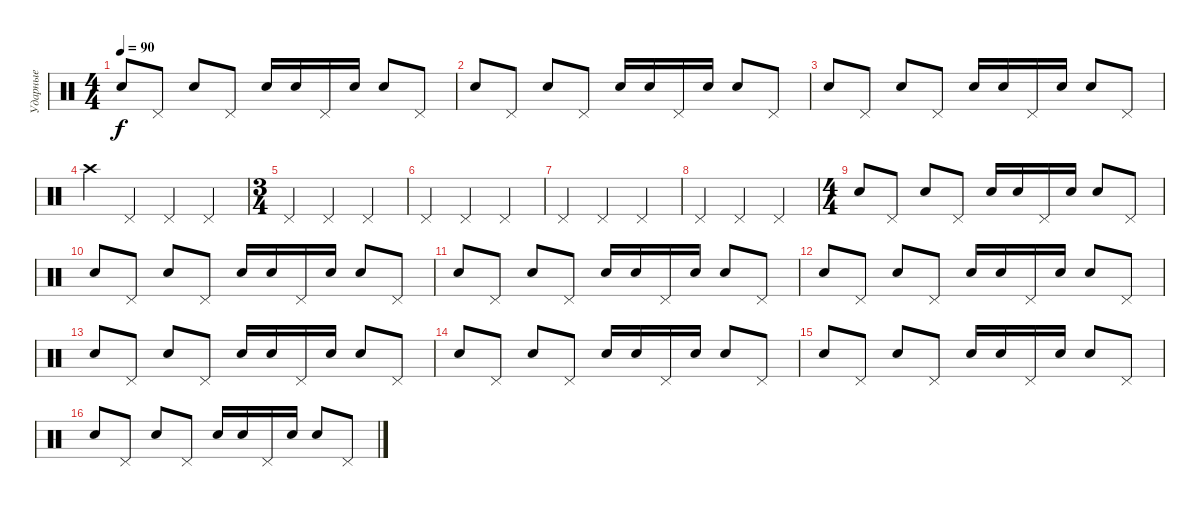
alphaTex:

\track ("Ударные" "Ударные") {instrument percussion}
\staff {score}
\articulation defaults
\ts (4 4)
\tempo 90
\clef neutral
\ks c "Snare (hit) 2".8{dy f} "Pedal Hi-Hat (hit)".8 "Snare (hit) 2".8 "Pedal Hi-Hat (hit)".8 "Snare (hit) 2".16 "Snare (hit) 2".16 "Pedal Hi-Hat (hit)".16 "Snare (hit) 2".16 "Snare (hit) 2".8 "Pedal Hi-Hat (hit)".8
|
"Snare (hit) 2".8 "Pedal Hi-Hat (hit)".8 "Snare (hit) 2".8 "Pedal Hi-Hat (hit)".8 "Snare (hit) 2".16 "Snare (hit) 2".16 "Pedal Hi-Hat (hit)".16 "Snare (hit) 2".16 "Snare (hit) 2".8 "Pedal Hi-Hat (hit)".8 |
"Snare (hit) 2".8 "Pedal Hi-Hat (hit)".8 "Snare (hit) 2".8 "Pedal Hi-Hat (hit)".8 "Snare (hit) 2".16 "Snare (hit) 2".16 "Pedal Hi-Hat (hit)".16 "Snare (hit) 2".16 "Snare (hit) 2".8 "Pedal Hi-Hat (hit)".8 |
"Crash high (hit)".4 "Pedal Hi-Hat (hit)".4 "Pedal Hi-Hat (hit)".4 "Pedal Hi-Hat (hit)".4 |
\ts (3 4)
"Pedal Hi-Hat (hit)".4 "Pedal Hi-Hat (hit)".4 "Pedal Hi-Hat (hit)".4 |
"Pedal Hi-Hat (hit)".4 "Pedal Hi-Hat (hit)".4 "Pedal Hi-Hat (hit)".4 |
"Pedal Hi-Hat (hit)".4 "Pedal Hi-Hat (hit)".4 "Pedal Hi-Hat (hit)".4 |
"Pedal Hi-Hat (hit)".4 "Pedal Hi-Hat (hit)".4 "Pedal Hi-Hat (hit)".4 |
\ts (4 4)
"Snare (hit) 2".8 "Pedal Hi-Hat (hit)".8 "Snare (hit) 2".8 "Pedal Hi-Hat (hit)".8 "Snare (hit) 2".16 "Snare (hit) 2".16 "Pedal Hi-Hat (hit)".16 "Snare (hit) 2".16 "Snare (hit) 2".8 "Pedal Hi-Hat (hit)".8 |
"Snare (hit) 2".8 "Pedal Hi-Hat (hit)".8 "Snare (hit) 2".8 "Pedal Hi-Hat (hit)".8 "Snare (hit) 2".16 "Snare (hit) 2".16 "Pedal Hi-Hat (hit)".16 "Snare (hit) 2".16 "Snare (hit) 2".8 "Pedal Hi-Hat (hit)".8 |
"Snare (hit) 2".8 "Pedal Hi-Hat (hit)".8 "Snare (hit) 2".8 "Pedal Hi-Hat (hit)".8 "Snare (hit) 2".16 "Snare (hit) 2".16 "Pedal Hi-Hat (hit)".16 "Snare (hit) 2".16 "Snare (hit) 2".8 "Pedal Hi-Hat (hit)".8 |
"Snare (hit) 2".8 "Pedal Hi-Hat (hit)".8 "Snare (hit) 2".8 "Pedal Hi-Hat (hit)".8 "Snare (hit) 2".16 "Snare (hit) 2".16 "Pedal Hi-Hat (hit)".16 "Snare (hit) 2".16 "Snare (hit) 2".8 "Pedal Hi-Hat (hit)".8 |
"Snare (hit) 2".8 "Pedal Hi-Hat (hit)".8 "Snare (hit) 2".8 "Pedal Hi-Hat (hit)".8 "Snare (hit) 2".16 "Snare (hit) 2".16 "Pedal Hi-Hat (hit)".16 "Snare (hit) 2".16 "Snare (hit) 2".8 "Pedal Hi-Hat (hit)".8 |
"Snare (hit) 2".8 "Pedal Hi-Hat (hit)".8 "Snare (hit) 2".8 "Pedal Hi-Hat (hit)".8 "Snare (hit) 2".16 "Snare (hit) 2".16 "Pedal Hi-Hat (hit)".16 "Snare (hit) 2".16 "Snare (hit) 2".8 "Pedal Hi-Hat (hit)".8 |
"Snare (hit) 2".8 "Pedal Hi-Hat (hit)".8 "Snare (hit) 2".8 "Pedal Hi-Hat (hit)".8 "Snare (hit) 2".16 "Snare (hit) 2".16 "Pedal Hi-Hat (hit)".16 "Snare (hit) 2".16 "Snare (hit) 2".8 "Pedal Hi-Hat (hit)".8 |
"Snare (hit) 2".8 "Pedal Hi-Hat (hit)".8 "Snare (hit) 2".8 "Pedal Hi-Hat (hit)".8 "Snare (hit) 2".16 "Snare (hit) 2".16 "Pedal Hi-Hat (hit)".16 "Snare (hit) 2".16 "Snare (hit) 2".8 "Pedal Hi-Hat (hit)".8
